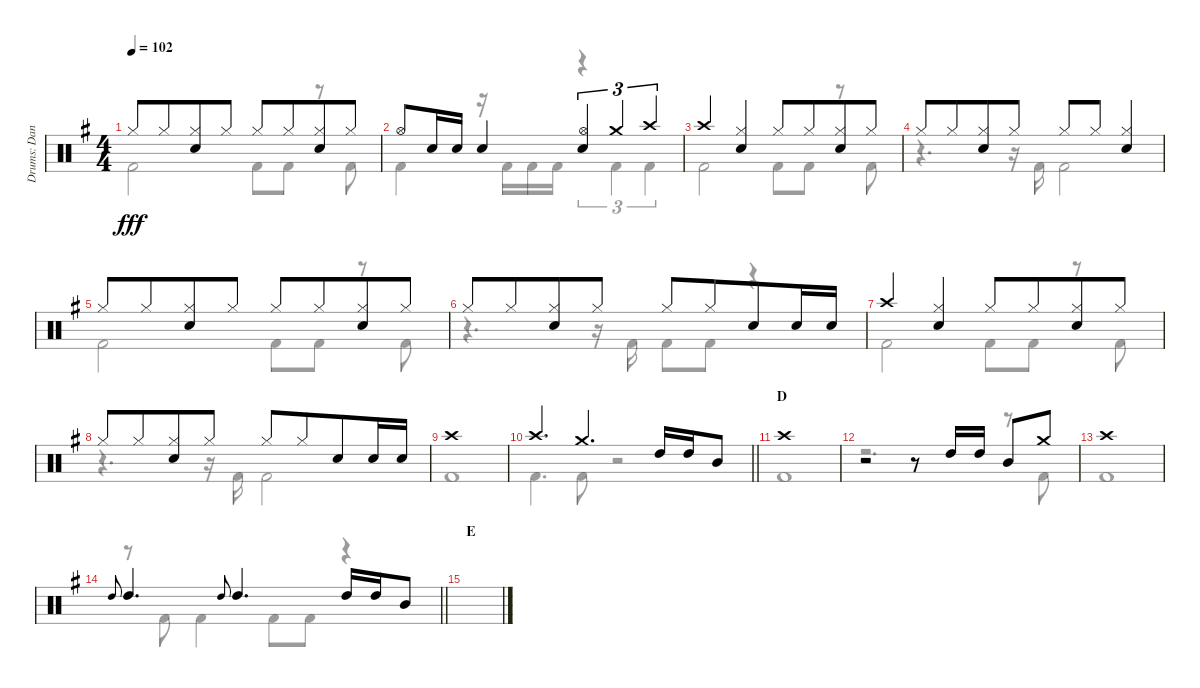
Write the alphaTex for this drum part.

\track ("Drums: Dana" "Drums: Dan") {instrument percussion}
\staff {score}
\articulation defaults
\voice
\ts (4 4)
\tempo 102
\clef neutral
\ks g "Hi-Hat (closed)".8{dy fff} "Hi-Hat (closed)".8{beam merge}
("Hi-Hat (closed)" "Snare (hit) 2").8 "Hi-Hat (closed)".8 "Hi-Hat (closed)".8 "Hi-Hat (closed)".8{beam merge} ("Hi-Hat (closed)" "Snare (hit) 2").8 "Hi-Hat (closed)".8 |
"Hi-Hat (open)".8 "Snare (hit) 2".16 "Snare (hit) 2".16 "Snare (hit) 2".4 ("Hi-Hat (open)" "Snare (hit) 2").4{tu (3 2)} "Crash medium (hit)".4{tu (3 2)} "Crash high (hit)".4{tu (3 2)} |
"Crash high (hit)".4 ("Hi-Hat (closed)" "Snare (hit) 2").4 "Hi-Hat (closed)".8 "Hi-Hat (closed)".8{beam merge} ("Hi-Hat (closed)" "Snare (hit) 2").8 "Hi-Hat (closed)".8 |
"Hi-Hat (closed)".8 "Hi-Hat (closed)".8{beam merge} ("Hi-Hat (closed)" "Snare (hit) 2").8 "Hi-Hat (closed)".8 "Hi-Hat (closed)".8 "Hi-Hat (closed)".8{beam merge} ("Hi-Hat (closed)" "Snare (hit) 2").4 |
"Hi-Hat (closed)".8 "Hi-Hat (closed)".8{beam merge} ("Hi-Hat (closed)" "Snare (hit) 2").8 "Hi-Hat (closed)".8 "Hi-Hat (closed)".8 "Hi-Hat (closed)".8{beam merge} ("Hi-Hat (closed)" "Snare (hit) 2").8 "Hi-Hat (closed)".8 |
"Hi-Hat (closed)".8 "Hi-Hat (closed)".8{beam merge} ("Hi-Hat (closed)" "Snare (hit) 2").8 "Hi-Hat (closed)".8 "Hi-Hat (closed)".8 "Hi-Hat (closed)".8{beam merge} "Snare (hit) 2".8 "Snare (hit) 2".16 "Snare (hit) 2".16 |
"Crash high (hit)".4 ("Hi-Hat (closed)" "Snare (hit) 2").4 "Hi-Hat (closed)".8 "Hi-Hat (closed)".8{beam merge} ("Hi-Hat (closed)" "Snare (hit) 2").8 "Hi-Hat (closed)".8 |
"Hi-Hat (closed)".8 "Hi-Hat (closed)".8{beam merge} ("Hi-Hat (closed)" "Snare (hit) 2").8 "Hi-Hat (closed)".8 "Hi-Hat (closed)".8 "Hi-Hat (closed)".8{beam merge} "Snare (hit) 2".8 "Snare (hit) 2".16 "Snare (hit) 2".16 |
"Crash high (hit)".1 |
\barLineRight lightlight "Crash high (hit)".4{d} "Crash medium (hit)".4{d} "High Tom (hit)".16 "High Tom (hit)".16 "Mid Tom (hit)".8
|
\section ("" "D")
"Crash high (hit)".1 |
r.2 r.8 "High Tom (hit)".16 "High Tom (hit)".16 "Mid Tom (hit)".8 "Crash medium (hit)".8 |
"Crash high (hit)".1 |
\barLineRight lightlight "High Tom (hit)".8{gr onbeat} "High Tom (hit)".4{d} "High Tom (hit)".8{gr onbeat} "High Tom (hit)".4{d} "High Tom (hit)".16 "High Tom (hit)".16 "Mid Tom (hit)".8
|
\section ("" "E")
|
\voice
\clef neutral
\ottava regular
\simile none
\ks g "Kick (hit) 2".2{dy fff} "Kick (hit) 2".8 "Kick (hit) 2".8
r.8 "Kick (hit) 2".8 |
"Kick (hit) 2".4 r.16 "Kick (hit) 2".16 "Kick (hit) 2".16 "Kick (hit) 2".16 r.4{tu (3 2)} "Kick (hit) 2".4{tu (3 2)} "Kick (hit) 2".4{tu (3 2)} |
"Kick (hit) 2".2 "Kick (hit) 2".8 "Kick (hit) 2".8 r.8 "Kick (hit) 2".8 |
r.4{d} r.16 "Kick (hit) 2".16 "Kick (hit) 2".2 |
"Kick (hit) 2".2 "Kick (hit) 2".8 "Kick (hit) 2".8 r.8 "Kick (hit) 2".8 |
r.4{d} r.16 "Kick (hit) 2".16 "Kick (hit) 2".8 "Kick (hit) 2".8 r.4 |
"Kick (hit) 2".2 "Kick (hit) 2".8 "Kick (hit) 2".8 r.8 "Kick (hit) 2".8 |
r.4{d} r.16 "Kick (hit) 2".16 "Kick (hit) 2".2 |
"Kick (hit) 2".1 |
\barLineRight lightlight "Kick (hit) 2".4{d} "Kick (hit) 2".8
r.2 |
"Kick (hit) 2".1 |
r.2{d} r.8 "Kick (hit) 2".8 |
"Kick (hit) 2".1 |
\barLineRight lightlight
r.8 "Kick (hit) 2".8 "Kick (hit) 2".4 "Kick (hit) 2".8 "Kick (hit) 2".8 r.4 |
|
